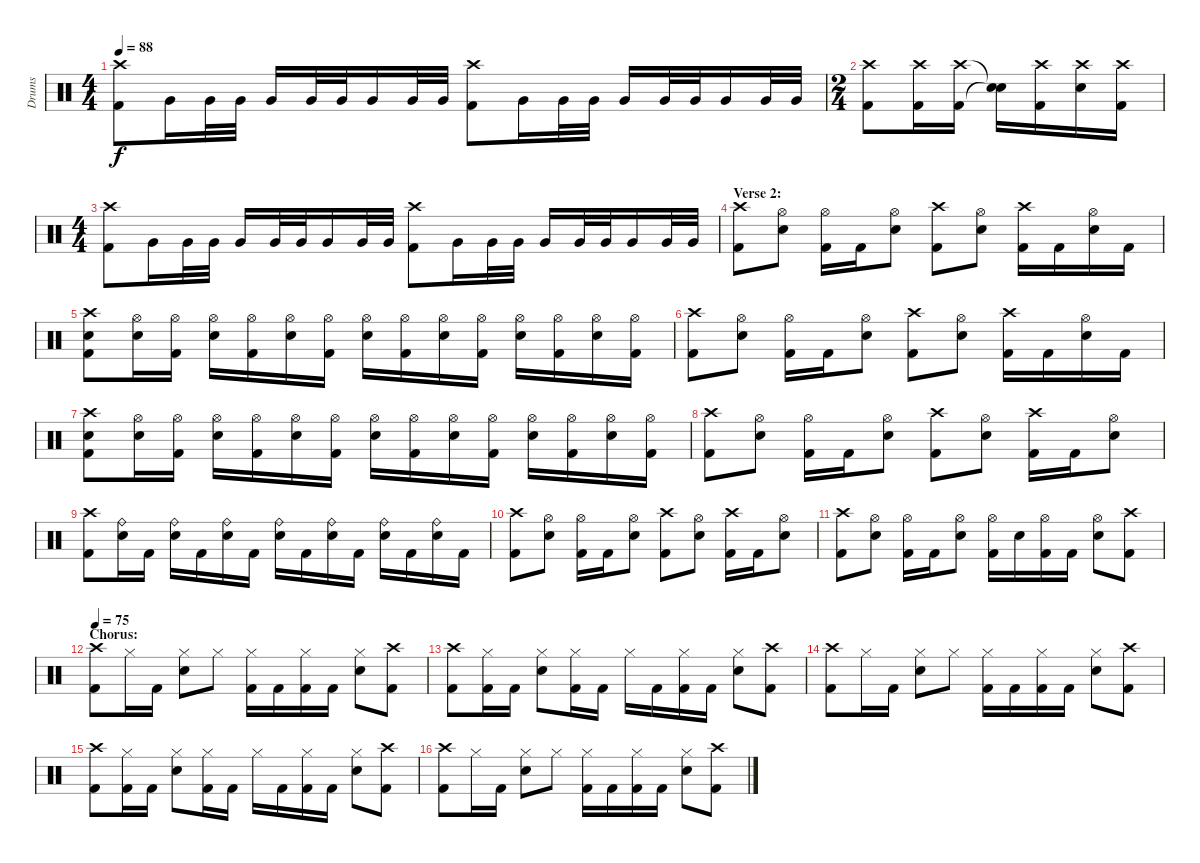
\track ("Drums" "Drums") {instrument percussion}
\staff {score}
\articulation defaults
\ts (4 4)
\tempo 88
\clef neutral
\ks c
("Crash high (hit)" "Kick (hit) 2").8{dy f} "Very Low Tom (hit)".16 "Very Low Tom (hit)".32 "Very Low Tom (hit)".32 "Very Low Tom (hit)".16 "Very Low Tom (hit)".32 "Very Low Tom (hit)".32 "Very Low Tom (hit)".16 "Very Low Tom (hit)".32 "Very Low Tom (hit)".32 ("Crash high (hit)" "Kick (hit) 2").8 "Very Low Tom (hit)".16 "Very Low Tom (hit)".32 "Very Low Tom (hit)".32 "Very Low Tom (hit)".16 "Very Low Tom (hit)".32 "Very Low Tom (hit)".32 "Very Low Tom (hit)".16 "Very Low Tom (hit)".32 "Very Low Tom (hit)".32 |
\ts (2 4)
("Crash high (hit)" "Kick (hit) 2").8 ("Crash high (hit)" "Kick (hit) 2").16 ("Crash high (hit)" "Kick (hit) 2").16 ("Snare (hit)"{t} "Snare (hit)"{t}).16 ("Crash high (hit)" "Kick (hit) 2").16 ("Crash high (hit)" "Electric Snare (hit)").16 ("Crash high (hit)" "Kick (hit) 2").16 |
\ts (4 4)
("Crash high (hit)" "Kick (hit) 2").8 "Very Low Tom (hit)".16 "Very Low Tom (hit)".32 "Very Low Tom (hit)".32 "Very Low Tom (hit)".16 "Very Low Tom (hit)".32 "Very Low Tom (hit)".32 "Very Low Tom (hit)".16 "Very Low Tom (hit)".32 "Very Low Tom (hit)".32 ("Crash high (hit)" "Kick (hit) 2").8 "Very Low Tom (hit)".16 "Very Low Tom (hit)".32 "Very Low Tom (hit)".32 "Very Low Tom (hit)".16 "Very Low Tom (hit)".32 "Very Low Tom (hit)".32 "Very Low Tom (hit)".16 "Very Low Tom (hit)".32 "Very Low Tom (hit)".32 |
\section ("" "Verse 2:")
("Crash high (hit)" "Kick (hit) 2").8 ("Hi-Hat (open)" "Electric Snare (hit)").8 ("Hi-Hat (open)" "Kick (hit) 2").16 "Kick (hit) 2".16 ("Hi-Hat (open)" "Electric Snare (hit)").8 ("Crash high (hit)" "Kick (hit) 2").8 ("Hi-Hat (open)" "Electric Snare (hit)").8 ("Crash high (hit)" "Kick (hit) 2").16 "Kick (hit) 2".16 ("Hi-Hat (open)" "Electric Snare (hit)").16 "Kick (hit) 2".16 |
("Crash high (hit)" "Electric Snare (hit)" "Kick (hit) 2").8 ("Hi-Hat (open)" "Electric Snare (hit)").16 ("Hi-Hat (open)" "Kick (hit) 2").16 ("Hi-Hat (open)" "Electric Snare (hit)").16 ("Hi-Hat (open)" "Kick (hit) 2").16 ("Hi-Hat (open)" "Electric Snare (hit)").16 ("Hi-Hat (open)" "Kick (hit) 2").16 ("Hi-Hat (open)" "Electric Snare (hit)").16 ("Hi-Hat (open)" "Kick (hit) 2").16 ("Hi-Hat (open)" "Electric Snare (hit)").16 ("Hi-Hat (open)" "Kick (hit) 2").16 ("Hi-Hat (open)" "Electric Snare (hit)").16 ("Hi-Hat (open)" "Kick (hit) 2").16 ("Hi-Hat (open)" "Electric Snare (hit)").16 ("Hi-Hat (open)" "Kick (hit) 2").16 |
("Crash high (hit)" "Kick (hit) 2").8 ("Hi-Hat (open)" "Electric Snare (hit)").8 ("Hi-Hat (open)" "Kick (hit) 2").16 "Kick (hit) 2".16 ("Hi-Hat (open)" "Electric Snare (hit)").8 ("Crash high (hit)" "Kick (hit) 2").8 ("Hi-Hat (open)" "Electric Snare (hit)").8 ("Crash high (hit)" "Kick (hit) 2").16 "Kick (hit) 2".16 ("Hi-Hat (open)" "Electric Snare (hit)").16 "Kick (hit) 2".16 |
("Crash high (hit)" "Electric Snare (hit)" "Kick (hit) 2").8 ("Hi-Hat (open)" "Electric Snare (hit)").16 ("Hi-Hat (open)" "Kick (hit) 2").16 ("Hi-Hat (open)" "Electric Snare (hit)").16 ("Hi-Hat (open)" "Kick (hit) 2").16 ("Hi-Hat (open)" "Electric Snare (hit)").16 ("Hi-Hat (open)" "Kick (hit) 2").16 ("Hi-Hat (open)" "Electric Snare (hit)").16 ("Hi-Hat (open)" "Kick (hit) 2").16 ("Hi-Hat (open)" "Electric Snare (hit)").16 ("Hi-Hat (open)" "Kick (hit) 2").16 ("Hi-Hat (open)" "Electric Snare (hit)").16 ("Hi-Hat (open)" "Kick (hit) 2").16 ("Hi-Hat (open)" "Electric Snare (hit)").16 ("Hi-Hat (open)" "Kick (hit) 2").16 |
("Crash high (hit)" "Kick (hit) 2").8 ("Hi-Hat (open)" "Electric Snare (hit)").8 ("Hi-Hat (open)" "Kick (hit) 2").16 "Kick (hit) 2".16 ("Hi-Hat (open)" "Electric Snare (hit)").8 ("Crash high (hit)" "Kick (hit) 2").8 ("Hi-Hat (open)" "Electric Snare (hit)").8 ("Crash high (hit)" "Kick (hit) 2").16 "Kick (hit) 2".16 ("Hi-Hat (open)" "Electric Snare (hit)").8 |
("Crash high (hit)" "Kick (hit) 2").8 ("Ride (bell)" "Electric Snare (hit)").16 "Kick (hit) 2".16 ("Ride (bell)" "Electric Snare (hit)").16 "Kick (hit) 2".16 ("Ride (bell)" "Electric Snare (hit)").16 "Kick (hit) 2".16 ("Ride (bell)" "Electric Snare (hit)").16 "Kick (hit) 2".16 ("Ride (bell)" "Electric Snare (hit)").16 "Kick (hit) 2".16 ("Ride (bell)" "Electric Snare (hit)").16 "Kick (hit) 2".16 ("Ride (bell)" "Electric Snare (hit)").16 "Kick (hit) 2".16 |
("Crash high (hit)" "Kick (hit) 2").8 ("Hi-Hat (open)" "Electric Snare (hit)").8 ("Hi-Hat (open)" "Kick (hit) 2").16 "Kick (hit) 2".16 ("Hi-Hat (open)" "Electric Snare (hit)").8 ("Crash high (hit)" "Kick (hit) 2").8 ("Hi-Hat (open)" "Electric Snare (hit)").8 ("Crash high (hit)" "Kick (hit) 2").16 "Kick (hit) 2".16 ("Hi-Hat (open)" "Electric Snare (hit)").8 |
("Crash high (hit)" "Kick (hit) 2").8 ("Hi-Hat (open)" "Electric Snare (hit)").8 ("Hi-Hat (open)" "Kick (hit) 2").16 "Kick (hit) 2".16 ("Hi-Hat (open)" "Electric Snare (hit)").8 ("Hi-Hat (open)" "Kick (hit) 2").16 "Electric Snare (hit)".16 ("Hi-Hat (open)" "Kick (hit) 2").16 "Kick (hit) 2".16 ("Hi-Hat (open)" "Electric Snare (hit)").8 ("Crash high (hit)" "Kick (hit) 2").8 |
\section ("" "Chorus:")
\tempo 75
("Crash high (hit)" "Kick (hit) 2").8 "Hi-Hat (closed)".16 "Kick (hit) 2".16 ("Hi-Hat (closed)" "Electric Snare (hit)").8 "Hi-Hat (closed)".8 ("Hi-Hat (closed)" "Kick (hit) 2").16 "Kick (hit) 2".16 ("Hi-Hat (closed)" "Kick (hit) 2").16 "Kick (hit) 2".16 ("Hi-Hat (closed)" "Electric Snare (hit)").8 ("Crash high (hit)" "Kick (hit) 2").8 |
("Crash high (hit)" "Kick (hit) 2").8 ("Hi-Hat (closed)" "Kick (hit) 2").16 "Kick (hit) 2".16 ("Hi-Hat (closed)" "Electric Snare (hit)").8 ("Hi-Hat (closed)" "Kick (hit) 2").16 "Kick (hit) 2".16 "Hi-Hat (closed)".16 "Kick (hit) 2".16 ("Hi-Hat (closed)" "Kick (hit) 2").16 "Kick (hit) 2".16 ("Hi-Hat (closed)" "Electric Snare (hit)").8 ("Crash high (hit)" "Kick (hit) 2").8 |
("Crash high (hit)" "Kick (hit) 2").8 "Hi-Hat (closed)".16 "Kick (hit) 2".16 ("Hi-Hat (closed)" "Electric Snare (hit)").8 "Hi-Hat (closed)".8 ("Hi-Hat (closed)" "Kick (hit) 2").16 "Kick (hit) 2".16 ("Hi-Hat (closed)" "Kick (hit) 2").16 "Kick (hit) 2".16 ("Hi-Hat (closed)" "Electric Snare (hit)").8 ("Crash high (hit)" "Kick (hit) 2").8 |
("Crash high (hit)" "Kick (hit) 2").8 ("Hi-Hat (closed)" "Kick (hit) 2").16 "Kick (hit) 2".16 ("Hi-Hat (closed)" "Electric Snare (hit)").8 ("Hi-Hat (closed)" "Kick (hit) 2").16 "Kick (hit) 2".16 "Hi-Hat (closed)".16 "Kick (hit) 2".16 ("Hi-Hat (closed)" "Kick (hit) 2").16 "Kick (hit) 2".16 ("Hi-Hat (closed)" "Electric Snare (hit)").8 ("Crash high (hit)" "Kick (hit) 2").8 |
("Crash high (hit)" "Kick (hit) 2").8 "Hi-Hat (closed)".16 "Kick (hit) 2".16 ("Hi-Hat (closed)" "Electric Snare (hit)").8 "Hi-Hat (closed)".8 ("Hi-Hat (closed)" "Kick (hit) 2").16 "Kick (hit) 2".16 ("Hi-Hat (closed)" "Kick (hit) 2").16 "Kick (hit) 2".16 ("Hi-Hat (closed)" "Electric Snare (hit)").8 ("Crash high (hit)" "Kick (hit) 2").8
